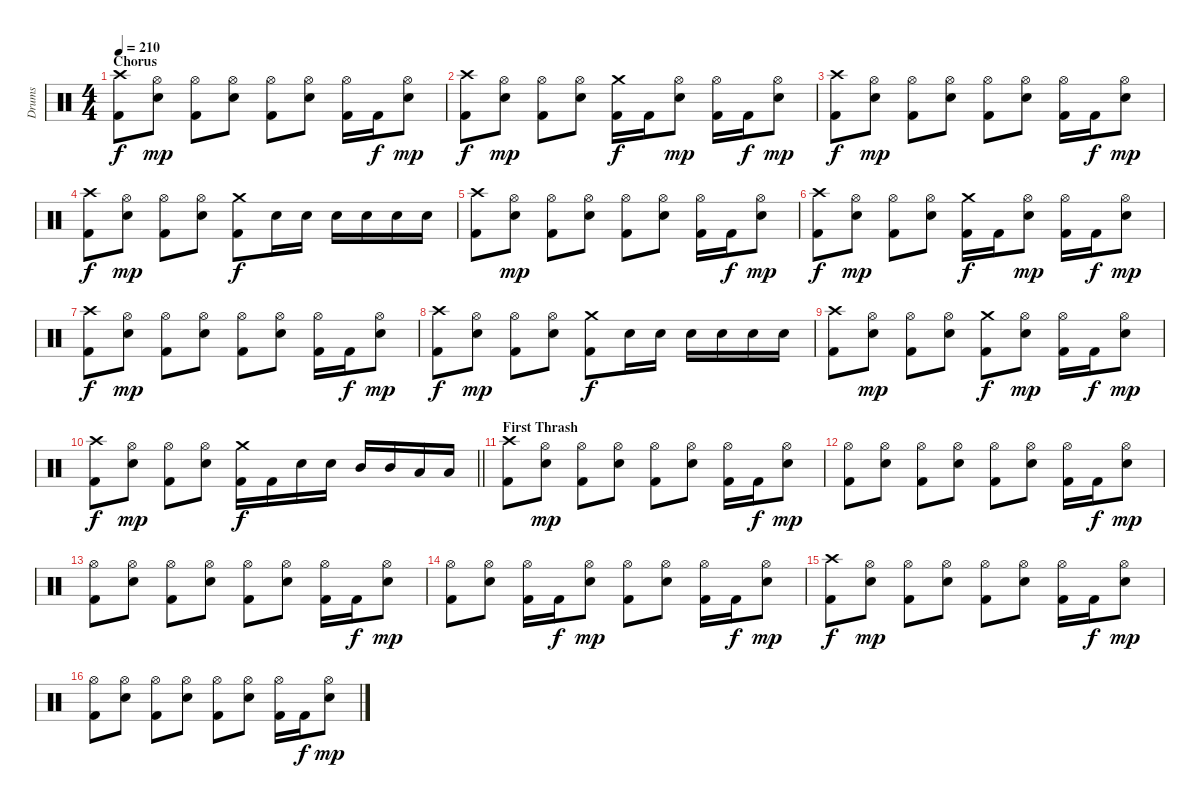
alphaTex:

\track ("Drums" "Drums") {instrument percussion}
\staff {score}
\articulation defaults
\ts (4 4)
\section ("" "Chorus")
\tempo 210
\clef neutral
\ks c
("Crash high (hit)" "Kick (hit) 2").8{dy f} ("Hi-Hat (open)" "Snare (hit) 2").8{dy mp} ("Hi-Hat (open)" "Kick (hit) 2").8 ("Hi-Hat (open)" "Snare (hit) 2").8 ("Hi-Hat (open)" "Kick (hit) 2").8 ("Hi-Hat (open)" "Snare (hit) 2").8 ("Hi-Hat (open)" "Kick (hit) 2").16 "Kick (hit) 2".16{dy f} ("Hi-Hat (open)" "Snare (hit) 2").8{dy mp} |
("Crash high (hit)" "Kick (hit) 2").8{dy f} ("Hi-Hat (open)" "Snare (hit) 2").8{dy mp} ("Hi-Hat (open)" "Kick (hit) 2").8 ("Hi-Hat (open)" "Snare (hit) 2").8 ("Crash medium (hit)" "Kick (hit) 2").16{dy f} "Kick (hit) 2".16 ("Hi-Hat (open)" "Snare (hit) 2").8{dy mp} ("Hi-Hat (open)" "Kick (hit) 2").16 "Kick (hit) 2".16{dy f} ("Hi-Hat (open)" "Snare (hit) 2").8{dy mp} |
("Crash high (hit)" "Kick (hit) 2").8{dy f} ("Hi-Hat (open)" "Snare (hit) 2").8{dy mp} ("Hi-Hat (open)" "Kick (hit) 2").8 ("Hi-Hat (open)" "Snare (hit) 2").8 ("Hi-Hat (open)" "Kick (hit) 2").8 ("Hi-Hat (open)" "Snare (hit) 2").8 ("Hi-Hat (open)" "Kick (hit) 2").16 "Kick (hit) 2".16{dy f} ("Hi-Hat (open)" "Snare (hit) 2").8{dy mp} |
("Crash high (hit)" "Kick (hit) 2").8{dy f} ("Hi-Hat (open)" "Snare (hit) 2").8{dy mp} ("Hi-Hat (open)" "Kick (hit) 2").8 ("Hi-Hat (open)" "Snare (hit) 2").8 ("Crash medium (hit)" "Kick (hit) 2").8{dy f} "Snare (hit) 2".16 "Snare (hit) 2".16 "Snare (hit) 2".16 "Snare (hit) 2".16 "Snare (hit) 2".16 "Snare (hit) 2".16 |
("Crash high (hit)" "Kick (hit) 2").8 ("Hi-Hat (open)" "Snare (hit) 2").8{dy mp} ("Hi-Hat (open)" "Kick (hit) 2").8 ("Hi-Hat (open)" "Snare (hit) 2").8 ("Hi-Hat (open)" "Kick (hit) 2").8 ("Hi-Hat (open)" "Snare (hit) 2").8 ("Hi-Hat (open)" "Kick (hit) 2").16 "Kick (hit) 2".16{dy f} ("Hi-Hat (open)" "Snare (hit) 2").8{dy mp} |
("Crash high (hit)" "Kick (hit) 2").8{dy f} ("Hi-Hat (open)" "Snare (hit) 2").8{dy mp} ("Hi-Hat (open)" "Kick (hit) 2").8 ("Hi-Hat (open)" "Snare (hit) 2").8 ("Crash medium (hit)" "Kick (hit) 2").16{dy f} "Kick (hit) 2".16 ("Hi-Hat (open)" "Snare (hit) 2").8{dy mp} ("Hi-Hat (open)" "Kick (hit) 2").16 "Kick (hit) 2".16{dy f} ("Hi-Hat (open)" "Snare (hit) 2").8{dy mp} |
("Crash high (hit)" "Kick (hit) 2").8{dy f} ("Hi-Hat (open)" "Snare (hit) 2").8{dy mp} ("Hi-Hat (open)" "Kick (hit) 2").8 ("Hi-Hat (open)" "Snare (hit) 2").8 ("Hi-Hat (open)" "Kick (hit) 2").8 ("Hi-Hat (open)" "Snare (hit) 2").8 ("Hi-Hat (open)" "Kick (hit) 2").16 "Kick (hit) 2".16{dy f} ("Hi-Hat (open)" "Snare (hit) 2").8{dy mp} |
("Crash high (hit)" "Kick (hit) 2").8{dy f} ("Hi-Hat (open)" "Snare (hit) 2").8{dy mp} ("Hi-Hat (open)" "Kick (hit) 2").8 ("Hi-Hat (open)" "Snare (hit) 2").8 ("Crash medium (hit)" "Kick (hit) 2").8{dy f} "Snare (hit) 2".16 "Snare (hit) 2".16 "Snare (hit) 2".16 "Snare (hit) 2".16 "Snare (hit) 2".16 "Snare (hit) 2".16 |
("Crash high (hit)" "Kick (hit) 2").8 ("Hi-Hat (open)" "Snare (hit) 2").8{dy mp} ("Hi-Hat (open)" "Kick (hit) 2").8 ("Hi-Hat (open)" "Snare (hit) 2").8 ("Crash medium (hit)" "Kick (hit) 2").8{dy f} ("Hi-Hat (open)" "Snare (hit) 2").8{dy mp} ("Hi-Hat (open)" "Kick (hit) 2").16 "Kick (hit) 2".16{dy f} ("Hi-Hat (open)" "Snare (hit) 2").8{dy mp} |
\barLineRight lightlight
("Crash high (hit)" "Kick (hit) 2").8{dy f} ("Hi-Hat (open)" "Snare (hit) 2").8{dy mp} ("Hi-Hat (open)" "Kick (hit) 2").8 ("Hi-Hat (open)" "Snare (hit) 2").8 ("Crash medium (hit)" "Kick (hit) 2").16{dy f} "Kick (hit) 2".16 "Snare (hit) 2".16 "Snare (hit) 2".16 "Mid Tom (hit)".16 "Mid Tom (hit)".16 "Low Tom (hit)".16 "Low Tom (hit)".16 |
\section ("" "First Thrash")
("Crash high (hit)" "Kick (hit) 2").8 ("Hi-Hat (open)" "Snare (hit) 2").8{dy mp} ("Hi-Hat (open)" "Kick (hit) 2").8 ("Hi-Hat (open)" "Snare (hit) 2").8 ("Hi-Hat (open)" "Kick (hit) 2").8 ("Hi-Hat (open)" "Snare (hit) 2").8 ("Hi-Hat (open)" "Kick (hit) 2").16 "Kick (hit) 2".16{dy f} ("Hi-Hat (open)" "Snare (hit) 2").8{dy mp} |
("Hi-Hat (open)" "Kick (hit) 2").8 ("Hi-Hat (open)" "Snare (hit) 2").8 ("Hi-Hat (open)" "Kick (hit) 2").8 ("Hi-Hat (open)" "Snare (hit) 2").8 ("Hi-Hat (open)" "Kick (hit) 2").8 ("Hi-Hat (open)" "Snare (hit) 2").8 ("Hi-Hat (open)" "Kick (hit) 2").16 "Kick (hit) 2".16{dy f} ("Hi-Hat (open)" "Snare (hit) 2").8{dy mp} |
("Hi-Hat (open)" "Kick (hit) 2").8 ("Hi-Hat (open)" "Snare (hit) 2").8 ("Hi-Hat (open)" "Kick (hit) 2").8 ("Hi-Hat (open)" "Snare (hit) 2").8 ("Hi-Hat (open)" "Kick (hit) 2").8 ("Hi-Hat (open)" "Snare (hit) 2").8 ("Hi-Hat (open)" "Kick (hit) 2").16 "Kick (hit) 2".16{dy f} ("Hi-Hat (open)" "Snare (hit) 2").8{dy mp} |
("Hi-Hat (open)" "Kick (hit) 2").8 ("Hi-Hat (open)" "Snare (hit) 2").8 ("Hi-Hat (open)" "Kick (hit) 2").16 "Kick (hit) 2".16{dy f} ("Hi-Hat (open)" "Snare (hit) 2").8{dy mp} ("Hi-Hat (open)" "Kick (hit) 2").8 ("Hi-Hat (open)" "Snare (hit) 2").8 ("Hi-Hat (open)" "Kick (hit) 2").16 "Kick (hit) 2".16{dy f} ("Hi-Hat (open)" "Snare (hit) 2").8{dy mp} |
("Crash high (hit)" "Kick (hit) 2").8{dy f} ("Hi-Hat (open)" "Snare (hit) 2").8{dy mp} ("Hi-Hat (open)" "Kick (hit) 2").8 ("Hi-Hat (open)" "Snare (hit) 2").8 ("Hi-Hat (open)" "Kick (hit) 2").8 ("Hi-Hat (open)" "Snare (hit) 2").8 ("Hi-Hat (open)" "Kick (hit) 2").16 "Kick (hit) 2".16{dy f} ("Hi-Hat (open)" "Snare (hit) 2").8{dy mp} |
("Hi-Hat (open)" "Kick (hit) 2").8 ("Hi-Hat (open)" "Snare (hit) 2").8 ("Hi-Hat (open)" "Kick (hit) 2").8 ("Hi-Hat (open)" "Snare (hit) 2").8 ("Hi-Hat (open)" "Kick (hit) 2").8 ("Hi-Hat (open)" "Snare (hit) 2").8 ("Hi-Hat (open)" "Kick (hit) 2").16 "Kick (hit) 2".16{dy f} ("Hi-Hat (open)" "Snare (hit) 2").8{dy mp}
